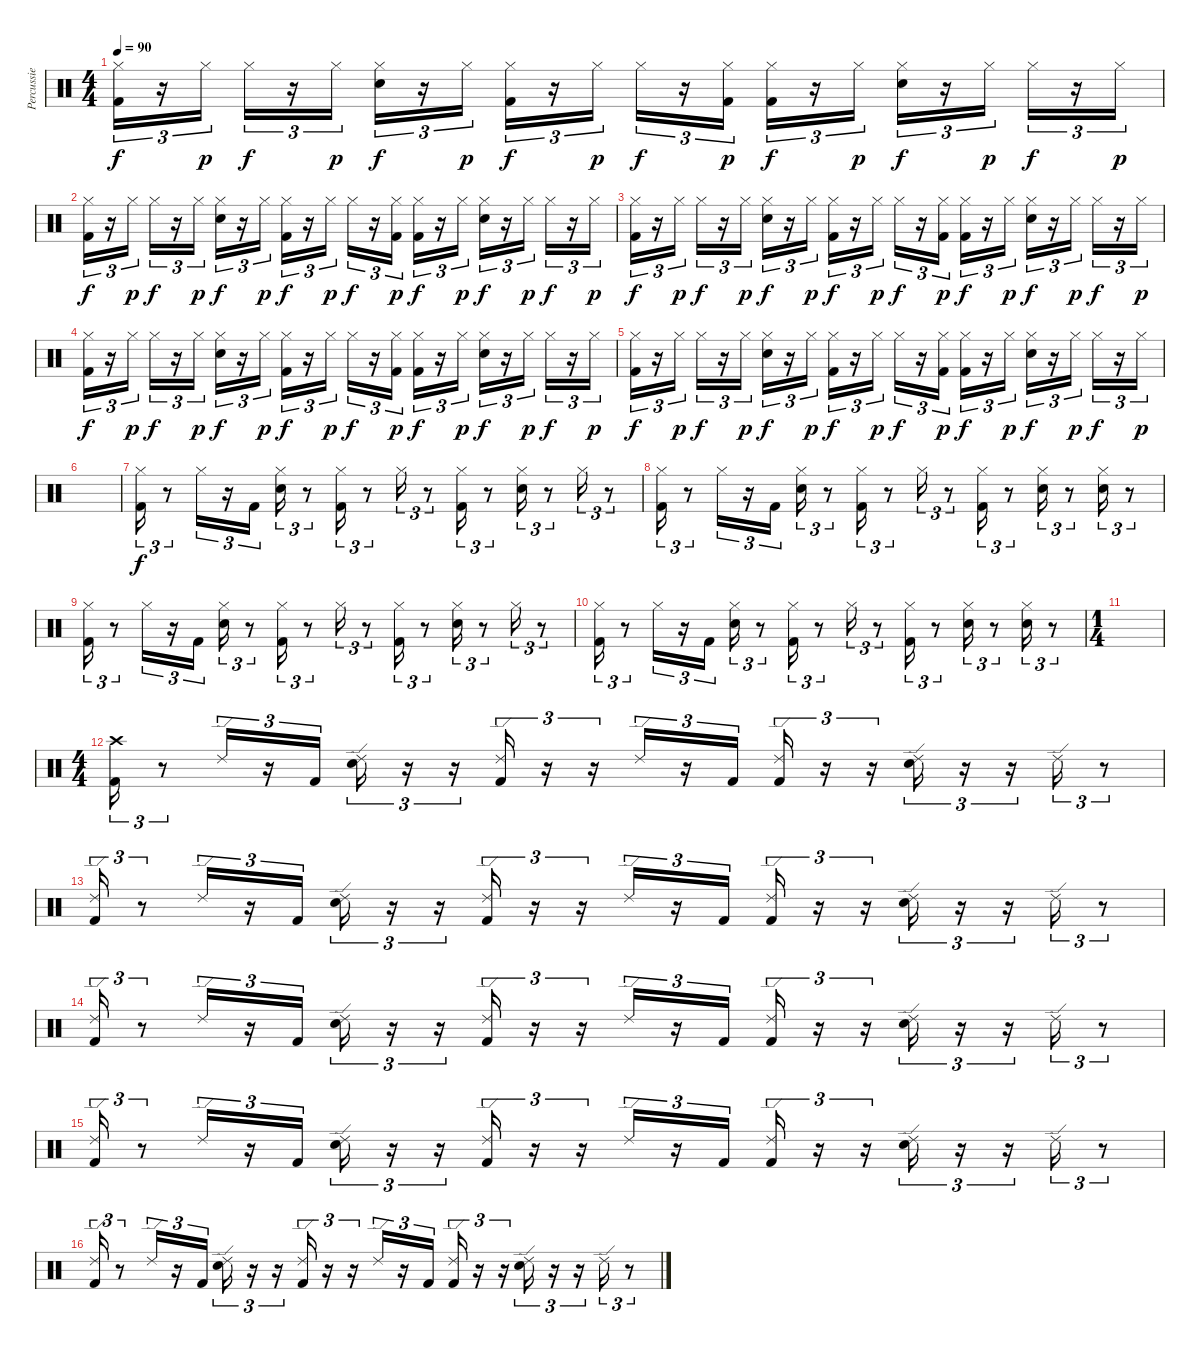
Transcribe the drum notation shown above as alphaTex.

\track ("Percussie" "Percussie") {instrument percussion}
\staff {score}
\articulation defaults
\ts (4 4)
\tempo 90
\clef neutral
\ks c
("Hi-Hat (closed)" "Kick (hit) 2").16{tu (3 2) dy f} r.16{tu (3 2)} "Hi-Hat (closed)".16{tu (3 2) dy p} "Hi-Hat (closed)".16{tu (3 2) dy f} r.16{tu (3 2)} "Hi-Hat (closed)".16{tu (3 2) dy p} ("Hi-Hat (closed)" "Electric Snare (hit)").16{tu (3 2) dy f} r.16{tu (3 2)} "Hi-Hat (closed)".16{tu (3 2) dy p} ("Hi-Hat (closed)" "Kick (hit) 2").16{tu (3 2) dy f} r.16{tu (3 2)} "Hi-Hat (closed)".16{tu (3 2) dy p} "Hi-Hat (closed)".16{tu (3 2) dy f} r.16{tu (3 2)} ("Hi-Hat (closed)" "Kick (hit) 2").16{tu (3 2) dy p} ("Hi-Hat (closed)" "Kick (hit) 2").16{tu (3 2) dy f} r.16{tu (3 2)} "Hi-Hat (closed)".16{tu (3 2) dy p} ("Hi-Hat (closed)" "Electric Snare (hit)").16{tu (3 2) dy f} r.16{tu (3 2)} "Hi-Hat (closed)".16{tu (3 2) dy p} "Hi-Hat (closed)".16{tu (3 2) dy f} r.16{tu (3 2)} "Hi-Hat (closed)".16{tu (3 2) dy p} |
("Hi-Hat (closed)" "Kick (hit) 2").16{tu (3 2) dy f} r.16{tu (3 2)} "Hi-Hat (closed)".16{tu (3 2) dy p} "Hi-Hat (closed)".16{tu (3 2) dy f} r.16{tu (3 2)} "Hi-Hat (closed)".16{tu (3 2) dy p} ("Hi-Hat (closed)" "Electric Snare (hit)").16{tu (3 2) dy f} r.16{tu (3 2)} "Hi-Hat (closed)".16{tu (3 2) dy p} ("Hi-Hat (closed)" "Kick (hit) 2").16{tu (3 2) dy f} r.16{tu (3 2)} "Hi-Hat (closed)".16{tu (3 2) dy p} "Hi-Hat (closed)".16{tu (3 2) dy f} r.16{tu (3 2)} ("Hi-Hat (closed)" "Kick (hit) 2").16{tu (3 2) dy p} ("Hi-Hat (closed)" "Kick (hit) 2").16{tu (3 2) dy f} r.16{tu (3 2)} "Hi-Hat (closed)".16{tu (3 2) dy p} ("Hi-Hat (closed)" "Electric Snare (hit)").16{tu (3 2) dy f} r.16{tu (3 2)} "Hi-Hat (closed)".16{tu (3 2) dy p} "Hi-Hat (closed)".16{tu (3 2) dy f} r.16{tu (3 2)} "Hi-Hat (closed)".16{tu (3 2) dy p} |
("Hi-Hat (closed)" "Kick (hit) 2").16{tu (3 2) dy f} r.16{tu (3 2)} "Hi-Hat (closed)".16{tu (3 2) dy p} "Hi-Hat (closed)".16{tu (3 2) dy f} r.16{tu (3 2)} "Hi-Hat (closed)".16{tu (3 2) dy p} ("Hi-Hat (closed)" "Electric Snare (hit)").16{tu (3 2) dy f} r.16{tu (3 2)} "Hi-Hat (closed)".16{tu (3 2) dy p} ("Hi-Hat (closed)" "Kick (hit) 2").16{tu (3 2) dy f} r.16{tu (3 2)} "Hi-Hat (closed)".16{tu (3 2) dy p} "Hi-Hat (closed)".16{tu (3 2) dy f} r.16{tu (3 2)} ("Hi-Hat (closed)" "Kick (hit) 2").16{tu (3 2) dy p} ("Hi-Hat (closed)" "Kick (hit) 2").16{tu (3 2) dy f} r.16{tu (3 2)} "Hi-Hat (closed)".16{tu (3 2) dy p} ("Hi-Hat (closed)" "Electric Snare (hit)").16{tu (3 2) dy f} r.16{tu (3 2)} "Hi-Hat (closed)".16{tu (3 2) dy p} "Hi-Hat (closed)".16{tu (3 2) dy f} r.16{tu (3 2)} "Hi-Hat (closed)".16{tu (3 2) dy p} |
("Hi-Hat (closed)" "Kick (hit) 2").16{tu (3 2) dy f} r.16{tu (3 2)} "Hi-Hat (closed)".16{tu (3 2) dy p} "Hi-Hat (closed)".16{tu (3 2) dy f} r.16{tu (3 2)} "Hi-Hat (closed)".16{tu (3 2) dy p} ("Hi-Hat (closed)" "Electric Snare (hit)").16{tu (3 2) dy f} r.16{tu (3 2)} "Hi-Hat (closed)".16{tu (3 2) dy p} ("Hi-Hat (closed)" "Kick (hit) 2").16{tu (3 2) dy f} r.16{tu (3 2)} "Hi-Hat (closed)".16{tu (3 2) dy p} "Hi-Hat (closed)".16{tu (3 2) dy f} r.16{tu (3 2)} ("Hi-Hat (closed)" "Kick (hit) 2").16{tu (3 2) dy p} ("Hi-Hat (closed)" "Kick (hit) 2").16{tu (3 2) dy f} r.16{tu (3 2)} "Hi-Hat (closed)".16{tu (3 2) dy p} ("Hi-Hat (closed)" "Electric Snare (hit)").16{tu (3 2) dy f} r.16{tu (3 2)} "Hi-Hat (closed)".16{tu (3 2) dy p} "Hi-Hat (closed)".16{tu (3 2) dy f} r.16{tu (3 2)} "Hi-Hat (closed)".16{tu (3 2) dy p} |
("Hi-Hat (closed)" "Kick (hit) 2").16{tu (3 2) dy f} r.16{tu (3 2)} "Hi-Hat (closed)".16{tu (3 2) dy p} "Hi-Hat (closed)".16{tu (3 2) dy f} r.16{tu (3 2)} "Hi-Hat (closed)".16{tu (3 2) dy p} ("Hi-Hat (closed)" "Electric Snare (hit)").16{tu (3 2) dy f} r.16{tu (3 2)} "Hi-Hat (closed)".16{tu (3 2) dy p} ("Hi-Hat (closed)" "Kick (hit) 2").16{tu (3 2) dy f} r.16{tu (3 2)} "Hi-Hat (closed)".16{tu (3 2) dy p} "Hi-Hat (closed)".16{tu (3 2) dy f} r.16{tu (3 2)} ("Hi-Hat (closed)" "Kick (hit) 2").16{tu (3 2) dy p} ("Hi-Hat (closed)" "Kick (hit) 2").16{tu (3 2) dy f} r.16{tu (3 2)} "Hi-Hat (closed)".16{tu (3 2) dy p} ("Hi-Hat (closed)" "Electric Snare (hit)").16{tu (3 2) dy f} r.16{tu (3 2)} "Hi-Hat (closed)".16{tu (3 2) dy p} "Hi-Hat (closed)".16{tu (3 2) dy f} r.16{tu (3 2)} "Hi-Hat (closed)".16{tu (3 2) dy p} |
|
("Hi-Hat (closed)" "Kick (hit) 2").16{tu (3 2) dy f} r.8{tu (3 2)} "Hi-Hat (closed)".16{tu (3 2)} r.16{tu (3 2)} "Kick (hit) 2".16{tu (3 2)} ("Hi-Hat (closed)" "Electric Snare (hit)").16{tu (3 2)} r.8{tu (3 2)} ("Hi-Hat (closed)" "Kick (hit) 2").16{tu (3 2)} r.8{tu (3 2)} "Hi-Hat (closed)".16{tu (3 2)} r.8{tu (3 2)} ("Hi-Hat (closed)" "Kick (hit) 2").16{tu (3 2)} r.8{tu (3 2)} ("Hi-Hat (closed)" "Electric Snare (hit)").16{tu (3 2)} r.8{tu (3 2)} "Hi-Hat (closed)".16{tu (3 2)} r.8{tu (3 2)} |
("Hi-Hat (closed)" "Kick (hit) 2").16{tu (3 2)} r.8{tu (3 2)} "Hi-Hat (closed)".16{tu (3 2)} r.16{tu (3 2)} "Kick (hit) 2".16{tu (3 2)} ("Hi-Hat (closed)" "Electric Snare (hit)").16{tu (3 2)} r.8{tu (3 2)} ("Hi-Hat (closed)" "Kick (hit) 2").16{tu (3 2)} r.8{tu (3 2)} "Hi-Hat (closed)".16{tu (3 2)} r.8{tu (3 2)} ("Hi-Hat (closed)" "Kick (hit) 2").16{tu (3 2)} r.8{tu (3 2)} ("Hi-Hat (closed)" "Electric Snare (hit)").16{tu (3 2)} r.8{tu (3 2)} ("Hi-Hat (closed)" "Electric Snare (hit)").16{tu (3 2)} r.8{tu (3 2)} |
("Hi-Hat (closed)" "Kick (hit) 2").16{tu (3 2)} r.8{tu (3 2)} "Hi-Hat (closed)".16{tu (3 2)} r.16{tu (3 2)} "Kick (hit) 2".16{tu (3 2)} ("Hi-Hat (closed)" "Electric Snare (hit)").16{tu (3 2)} r.8{tu (3 2)} ("Hi-Hat (closed)" "Kick (hit) 2").16{tu (3 2)} r.8{tu (3 2)} "Hi-Hat (closed)".16{tu (3 2)} r.8{tu (3 2)} ("Hi-Hat (closed)" "Kick (hit) 2").16{tu (3 2)} r.8{tu (3 2)} ("Hi-Hat (closed)" "Electric Snare (hit)").16{tu (3 2)} r.8{tu (3 2)} "Hi-Hat (closed)".16{tu (3 2)} r.8{tu (3 2)} |
("Hi-Hat (closed)" "Kick (hit) 2").16{tu (3 2)} r.8{tu (3 2)} "Hi-Hat (closed)".16{tu (3 2)} r.16{tu (3 2)} "Kick (hit) 2".16{tu (3 2)} ("Hi-Hat (closed)" "Electric Snare (hit)").16{tu (3 2)} r.8{tu (3 2)} ("Hi-Hat (closed)" "Kick (hit) 2").16{tu (3 2)} r.8{tu (3 2)} "Hi-Hat (closed)".16{tu (3 2)} r.8{tu (3 2)} ("Hi-Hat (closed)" "Kick (hit) 2").16{tu (3 2)} r.8{tu (3 2)} ("Hi-Hat (closed)" "Electric Snare (hit)").16{tu (3 2)} r.8{tu (3 2)} ("Hi-Hat (closed)" "Electric Snare (hit)").16{tu (3 2)} r.8{tu (3 2)} |
\ts (1 4)
|
\ts (4 4)
("Crash high (hit)" "Kick (hit) 2").16{tu (3 2)} r.8{tu (3 2)} "Ride (edge) 2".16{tu (3 2)} r.16{tu (3 2)} "Kick (hit) 2".16{tu (3 2)} ("Ride (edge) 2" "Electric Snare (hit)").16{tu (3 2)} r.16{tu (3 2)} r.16{tu (3 2)} ("Ride (edge) 2" "Kick (hit) 2").16{tu (3 2)} r.16{tu (3 2)} r.16{tu (3 2)} "Ride (edge) 2".16{tu (3 2)} r.16{tu (3 2)} "Kick (hit) 2".16{tu (3 2)} ("Ride (edge) 2" "Kick (hit) 2").16{tu (3 2)} r.16{tu (3 2)} r.16{tu (3 2)} ("Ride (edge) 2" "Electric Snare (hit)").16{tu (3 2)} r.16{tu (3 2)} r.16{tu (3 2)} "Ride (edge) 2".16{tu (3 2)} r.8{tu (3 2)} |
("Ride (edge) 2" "Kick (hit) 2").16{tu (3 2)} r.8{tu (3 2)} "Ride (edge) 2".16{tu (3 2)} r.16{tu (3 2)} "Kick (hit) 2".16{tu (3 2)} ("Ride (edge) 2" "Electric Snare (hit)").16{tu (3 2)} r.16{tu (3 2)} r.16{tu (3 2)} ("Ride (edge) 2" "Kick (hit) 2").16{tu (3 2)} r.16{tu (3 2)} r.16{tu (3 2)} "Ride (edge) 2".16{tu (3 2)} r.16{tu (3 2)} "Kick (hit) 2".16{tu (3 2)} ("Ride (edge) 2" "Kick (hit) 2").16{tu (3 2)} r.16{tu (3 2)} r.16{tu (3 2)} ("Ride (edge) 2" "Electric Snare (hit)").16{tu (3 2)} r.16{tu (3 2)} r.16{tu (3 2)} "Ride (edge) 2".16{tu (3 2)} r.8{tu (3 2)} |
("Ride (edge) 2" "Kick (hit) 2").16{tu (3 2)} r.8{tu (3 2)} "Ride (edge) 2".16{tu (3 2)} r.16{tu (3 2)} "Kick (hit) 2".16{tu (3 2)} ("Ride (edge) 2" "Electric Snare (hit)").16{tu (3 2)} r.16{tu (3 2)} r.16{tu (3 2)} ("Ride (edge) 2" "Kick (hit) 2").16{tu (3 2)} r.16{tu (3 2)} r.16{tu (3 2)} "Ride (edge) 2".16{tu (3 2)} r.16{tu (3 2)} "Kick (hit) 2".16{tu (3 2)} ("Ride (edge) 2" "Kick (hit) 2").16{tu (3 2)} r.16{tu (3 2)} r.16{tu (3 2)} ("Ride (edge) 2" "Electric Snare (hit)").16{tu (3 2)} r.16{tu (3 2)} r.16{tu (3 2)} "Ride (edge) 2".16{tu (3 2)} r.8{tu (3 2)} |
("Ride (edge) 2" "Kick (hit) 2").16{tu (3 2)} r.8{tu (3 2)} "Ride (edge) 2".16{tu (3 2)} r.16{tu (3 2)} "Kick (hit) 2".16{tu (3 2)} ("Ride (edge) 2" "Electric Snare (hit)").16{tu (3 2)} r.16{tu (3 2)} r.16{tu (3 2)} ("Ride (edge) 2" "Kick (hit) 2").16{tu (3 2)} r.16{tu (3 2)} r.16{tu (3 2)} "Ride (edge) 2".16{tu (3 2)} r.16{tu (3 2)} "Kick (hit) 2".16{tu (3 2)} ("Ride (edge) 2" "Kick (hit) 2").16{tu (3 2)} r.16{tu (3 2)} r.16{tu (3 2)} ("Ride (edge) 2" "Electric Snare (hit)").16{tu (3 2)} r.16{tu (3 2)} r.16{tu (3 2)} "Ride (edge) 2".16{tu (3 2)} r.8{tu (3 2)} |
("Ride (edge) 2" "Kick (hit) 2").16{tu (3 2)} r.8{tu (3 2)} "Ride (edge) 2".16{tu (3 2)} r.16{tu (3 2)} "Kick (hit) 2".16{tu (3 2)} ("Ride (edge) 2" "Electric Snare (hit)").16{tu (3 2)} r.16{tu (3 2)} r.16{tu (3 2)} ("Ride (edge) 2" "Kick (hit) 2").16{tu (3 2)} r.16{tu (3 2)} r.16{tu (3 2)} "Ride (edge) 2".16{tu (3 2)} r.16{tu (3 2)} "Kick (hit) 2".16{tu (3 2)} ("Ride (edge) 2" "Kick (hit) 2").16{tu (3 2)} r.16{tu (3 2)} r.16{tu (3 2)} ("Ride (edge) 2" "Electric Snare (hit)").16{tu (3 2)} r.16{tu (3 2)} r.16{tu (3 2)} "Ride (edge) 2".16{tu (3 2)} r.8{tu (3 2)}
